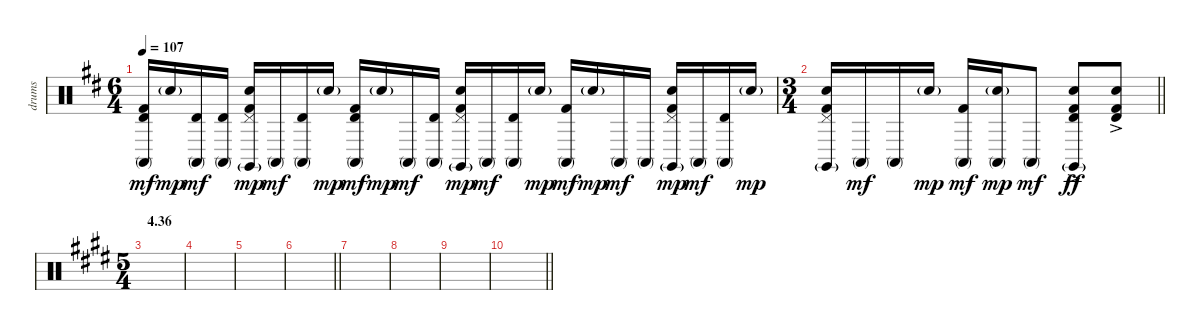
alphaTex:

\track ("drums" "drums") {instrument percussion}
\staff {score}
\articulation defaults
\ts (6 4)
\tempo 107
\clef neutral
\ks d
("Conga high (mute)" "Timbale high (hit)" "Kick (hit) 2").16{dy mf} "Electric Snare (hit)"{g}.16{dy mp} ("Conga high (mute)" "Timbale high (hit)").16{dy mf} ("Conga high (mute)" "Timbale high (hit)").16 ("Pedal Hi-Hat (hit)" "Claves (hit)"{g} "Electric Snare (hit)" "Kick (hit) 2").16{dy mp} "Conga high (mute)".16{dy mf} ("Conga high (mute)" "Timbale high (hit)").16 "Electric Snare (hit)"{g}.16{dy mp} ("Conga high (mute)" "Timbale high (hit)" "Kick (hit) 2").16{dy mf} "Electric Snare (hit)"{g}.16{dy mp} "Conga high (mute)".16{dy mf} ("Conga high (mute)" "Timbale high (hit)").16 ("Pedal Hi-Hat (hit)" "Claves (hit)"{g} "Electric Snare (hit)" "Kick (hit) 2").16{dy mp} "Conga high (mute)".16{dy mf} ("Conga high (mute)" "Timbale high (hit)").16 "Electric Snare (hit)"{g}.16{dy mp} ("Conga high (mute)" "Kick (hit) 2").16{dy mf} "Electric Snare (hit)"{g}.16{dy mp} "Conga high (mute)".16{dy mf} "Conga high (mute)".16 ("Pedal Hi-Hat (hit)" "Claves (hit)"{g} "Electric Snare (hit)" "Kick (hit) 2").16{dy mp} "Conga high (mute)".16{dy mf} ("Conga high (mute)" "Timbale high (hit)").16 "Electric Snare (hit)"{g}.16{dy mp} |
\ts (3 4)
\barLineRight lightlight
("Pedal Hi-Hat (hit)" "Claves (hit)"{g} "Electric Snare (hit)" "Kick (hit) 2").16 "Conga high (mute)".16{dy mf} "Conga high (mute)".16 "Electric Snare (hit)"{g}.16{dy mp} ("Conga high (mute)" "Kick (hit) 2").16{dy mf} ("Conga high (mute)" "Electric Snare (hit)"{g}).16{dy mp} "Conga high (mute)".8{dy mf} ("Timbale high (hit)" "Claves (hit)"{g} "Electric Snare (hit)"{ac} "Kick (hit) 2").8{dy ff} ("Timbale high (hit)" "Electric Snare (hit)"{ac} "Kick (hit) 2").8 |
\ts (5 4)
\section ("" "4.36")
\ks e
|
|
|
\barLineRight lightlight
|
|
|
|
\barLineRight lightlight
